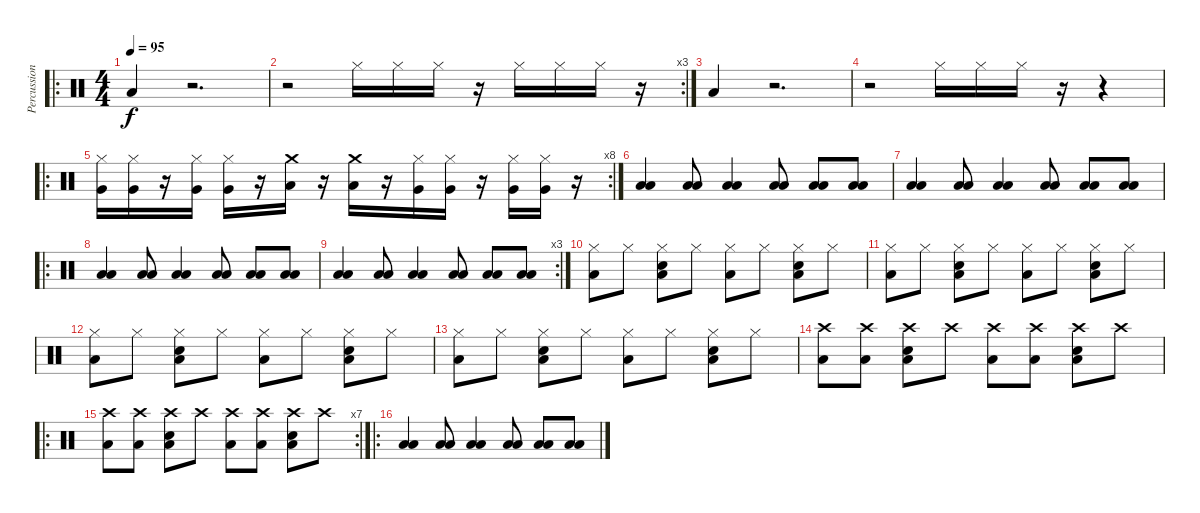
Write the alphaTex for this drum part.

\track ("Percussions" "Percussion") {instrument percussion}
\staff {score}
\articulation defaults
\ro
\ts (4 4)
\tempo 95
\clef neutral
\ks c "Low Floor Tom (hit)".4{dy f}
r.2{d} |
\rc 3
r.2 "Hi-Hat (closed)".16 "Hi-Hat (closed)".16 "Hi-Hat (closed)".16 r.16 "Hi-Hat (closed)".16 "Hi-Hat (closed)".16 "Hi-Hat (closed)".16 r.16 |
"Low Floor Tom (hit)".4 r.2{d} |
r.2 "Hi-Hat (closed)".16 "Hi-Hat (closed)".16 "Hi-Hat (closed)".16 r.16 r.4 |
\ro
\rc 8
("Very Low Tom (hit)" "Hi-Hat (closed)").16 ("Very Low Tom (hit)" "Hi-Hat (closed)").16 r.16 ("Very Low Tom (hit)" "Hi-Hat (closed)").16 ("Very Low Tom (hit)" "Hi-Hat (closed)").16 r.16 ("Low Tom (hit)" "Crash medium (hit)").16 r.16 ("Low Tom (hit)" "Crash medium (hit)").16 r.16 ("Very Low Tom (hit)" "Hi-Hat (closed)").16 ("Very Low Tom (hit)" "Hi-Hat (closed)").16 r.16 ("Very Low Tom (hit)" "Hi-Hat (closed)").16 ("Very Low Tom (hit)" "Hi-Hat (closed)").16 r.16 |
("Low Floor Tom (hit)" "Low Tom (hit)").4 ("Low Floor Tom (hit)" "Low Tom (hit)").8 ("Low Floor Tom (hit)" "Low Tom (hit)").4 ("Low Floor Tom (hit)" "Low Tom (hit)").8 ("Low Floor Tom (hit)" "Low Tom (hit)").8 ("Low Floor Tom (hit)" "Low Tom (hit)").8 |
("Low Floor Tom (hit)" "Low Tom (hit)").4 ("Low Floor Tom (hit)" "Low Tom (hit)").8 ("Low Floor Tom (hit)" "Low Tom (hit)").4 ("Low Floor Tom (hit)" "Low Tom (hit)").8 ("Low Floor Tom (hit)" "Low Tom (hit)").8 ("Low Floor Tom (hit)" "Low Tom (hit)").8 |
\ro
("Low Floor Tom (hit)" "Low Tom (hit)").4 ("Low Floor Tom (hit)" "Low Tom (hit)").8 ("Low Floor Tom (hit)" "Low Tom (hit)").4 ("Low Floor Tom (hit)" "Low Tom (hit)").8 ("Low Floor Tom (hit)" "Low Tom (hit)").8 ("Low Floor Tom (hit)" "Low Tom (hit)").8 |
\rc 3
("Low Floor Tom (hit)" "Low Tom (hit)").4 ("Low Floor Tom (hit)" "Low Tom (hit)").8 ("Low Floor Tom (hit)" "Low Tom (hit)").4 ("Low Floor Tom (hit)" "Low Tom (hit)").8 ("Low Floor Tom (hit)" "Low Tom (hit)").8 ("Low Floor Tom (hit)" "Low Tom (hit)").8 |
("Low Floor Tom (hit)" "Hi-Hat (closed)").8 "Hi-Hat (closed)".8 ("Low Floor Tom (hit)" "Snare (hit) 2" "Hi-Hat (closed)").8 "Hi-Hat (closed)".8 ("Low Floor Tom (hit)" "Hi-Hat (closed)").8 "Hi-Hat (closed)".8 ("Low Floor Tom (hit)" "Snare (hit) 2" "Hi-Hat (closed)").8 "Hi-Hat (closed)".8 |
("Low Floor Tom (hit)" "Hi-Hat (closed)").8 "Hi-Hat (closed)".8 ("Low Floor Tom (hit)" "Snare (hit) 2" "Hi-Hat (closed)").8 "Hi-Hat (closed)".8 ("Low Floor Tom (hit)" "Hi-Hat (closed)").8 "Hi-Hat (closed)".8 ("Low Floor Tom (hit)" "Snare (hit) 2" "Hi-Hat (closed)").8 "Hi-Hat (closed)".8 |
("Low Floor Tom (hit)" "Hi-Hat (closed)").8 "Hi-Hat (closed)".8 ("Low Floor Tom (hit)" "Snare (hit) 2" "Hi-Hat (closed)").8 "Hi-Hat (closed)".8 ("Low Floor Tom (hit)" "Hi-Hat (closed)").8 "Hi-Hat (closed)".8 ("Low Floor Tom (hit)" "Snare (hit) 2" "Hi-Hat (closed)").8 "Hi-Hat (closed)".8 |
("Low Floor Tom (hit)" "Hi-Hat (closed)").8 "Hi-Hat (closed)".8 ("Low Floor Tom (hit)" "Snare (hit) 2" "Hi-Hat (closed)").8 "Hi-Hat (closed)".8 ("Low Floor Tom (hit)" "Hi-Hat (closed)").8 "Hi-Hat (closed)".8 ("Low Floor Tom (hit)" "Snare (hit) 2" "Hi-Hat (closed)").8 "Hi-Hat (closed)".8 |
("Low Floor Tom (hit)" "Crash high (hit)").8 ("Low Floor Tom (hit)" "Crash high (hit)").8 ("Low Floor Tom (hit)" "Snare (hit) 2" "Crash high (hit)").8 "Crash high (hit)".8 ("Low Floor Tom (hit)" "Crash high (hit)").8 ("Low Floor Tom (hit)" "Crash high (hit)").8 ("Low Floor Tom (hit)" "Snare (hit) 2" "Crash high (hit)").8 "Crash high (hit)".8 |
\ro
\rc 7
("Low Floor Tom (hit)" "Crash high (hit)").8 ("Low Floor Tom (hit)" "Crash high (hit)").8 ("Low Floor Tom (hit)" "Snare (hit) 2" "Crash high (hit)").8 "Crash high (hit)".8 ("Low Floor Tom (hit)" "Crash high (hit)").8 ("Low Floor Tom (hit)" "Crash high (hit)").8 ("Low Floor Tom (hit)" "Snare (hit) 2" "Crash high (hit)").8 "Crash high (hit)".8 |
\ro
("Low Floor Tom (hit)" "Low Tom (hit)").4 ("Low Floor Tom (hit)" "Low Tom (hit)").8 ("Low Floor Tom (hit)" "Low Tom (hit)").4 ("Low Floor Tom (hit)" "Low Tom (hit)").8 ("Low Floor Tom (hit)" "Low Tom (hit)").8 ("Low Floor Tom (hit)" "Low Tom (hit)").8
